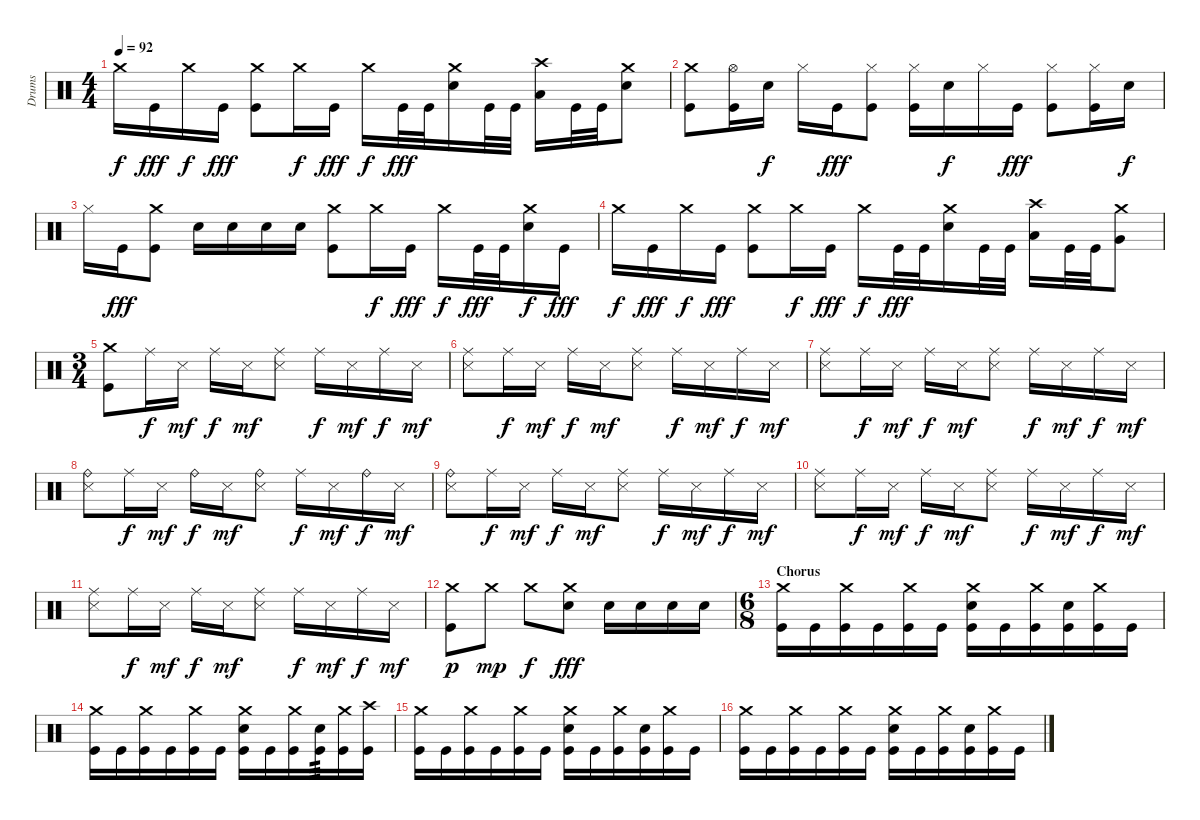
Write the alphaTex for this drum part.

\track ("Drums" "Drums") {instrument percussion}
\staff {score}
\articulation defaults
\ts (4 4)
\tempo 92
\clef neutral
\ks c "Crash medium (hit)".16{dy f} "Kick (hit)".16{dy fff} "Crash medium (hit)".16{dy f} "Kick (hit)".16{dy fff}
("Crash medium (hit)" "Kick (hit)").8 "Crash medium (hit)".16{dy f} "Kick (hit)".16{dy fff} "Crash medium (hit)".16{dy f} "Kick (hit)".32{dy fff} "Kick (hit)".32 ("Crash medium (hit)" "Snare (hit) 2").16 "Kick (hit)".32 "Kick (hit)".32 ("Crash high (hit)" "Low Tom (hit)").16 "Kick (hit)".32 "Kick (hit)".32 ("Crash medium (hit)" "Snare (hit) 2").8 |
("Crash medium (hit)" "Kick (hit)").8 ("Hi-Hat (open)" "Kick (hit)").16 "Snare (hit) 2".16{dy f} "Hi-Hat (closed)".16 "Kick (hit)".16{dy fff} ("Hi-Hat (closed)" "Kick (hit)").8 ("Hi-Hat (closed)" "Kick (hit)").16 "Snare (hit) 2".16{dy f} "Hi-Hat (closed)".16 "Kick (hit)".16{dy fff} ("Hi-Hat (closed)" "Kick (hit)").8 ("Hi-Hat (closed)" "Kick (hit)").16 "Snare (hit) 2".16{dy f} |
"Hi-Hat (closed)".16 "Kick (hit)".16{dy fff} ("Crash medium (hit)" "Kick (hit)").8 "Snare (hit) 2".16 "Snare (hit) 2".16 "Snare (hit) 2".16 "Snare (hit) 2".16 ("Crash medium (hit)" "Kick (hit)").8 "Crash medium (hit)".16{dy f} "Kick (hit)".16{dy fff} "Crash medium (hit)".16{dy f} "Kick (hit)".32{dy fff} "Kick (hit)".32 ("Crash medium (hit)" "Snare (hit) 2").16{dy f} "Kick (hit)".16{dy fff} |
"Crash medium (hit)".16{dy f} "Kick (hit)".16{dy fff} "Crash medium (hit)".16{dy f} "Kick (hit)".16{dy fff} ("Crash medium (hit)" "Kick (hit)").8 "Crash medium (hit)".16{dy f} "Kick (hit)".16{dy fff} "Crash medium (hit)".16{dy f} "Kick (hit)".32{dy fff} "Kick (hit)".32 ("Crash medium (hit)" "Snare (hit) 2").16 "Kick (hit)".32 "Kick (hit)".32 ("Crash high (hit)" "Low Tom (hit)").16 "Kick (hit)".32 "Kick (hit)".32 ("Crash medium (hit)" "Very Low Tom (hit)").8 |
\ts (3 4)
("Crash medium (hit)" "Kick (hit)").8 "Ride (middle)".16{dy f} "Snare (side stick) 3".16{dy mf} "Ride (middle)".16{dy f} "Snare (side stick) 3".16{dy mf} ("Ride (middle)" "Snare (side stick) 3").8 "Ride (middle)".16{dy f} "Snare (side stick) 3".16{dy mf} "Ride (middle)".16{dy f} "Snare (side stick) 3".16{dy mf} |
("Ride (middle)" "Snare (side stick) 3").8 "Ride (middle)".16{dy f} "Snare (side stick) 3".16{dy mf} "Ride (middle)".16{dy f} "Snare (side stick) 3".16{dy mf} ("Ride (middle)" "Snare (side stick) 3").8 "Ride (middle)".16{dy f} "Snare (side stick) 3".16{dy mf} "Ride (middle)".16{dy f} "Snare (side stick) 3".16{dy mf} |
("Ride (middle)" "Snare (side stick) 3").8 "Ride (middle)".16{dy f} "Snare (side stick) 3".16{dy mf} "Ride (middle)".16{dy f} "Snare (side stick) 3".16{dy mf} ("Ride (middle)" "Snare (side stick) 3").8 "Ride (middle)".16{dy f} "Snare (side stick) 3".16{dy mf} "Ride (middle)".16{dy f} "Snare (side stick) 3".16{dy mf} |
("Ride (bell)" "Snare (side stick) 3").8 "Ride (middle)".16{dy f} "Snare (side stick) 3".16{dy mf} "Ride (bell)".16{dy f} "Snare (side stick) 3".16{dy mf} ("Ride (bell)" "Snare (side stick) 3").8 "Ride (middle)".16{dy f} "Snare (side stick) 3".16{dy mf} "Ride (bell)".16{dy f} "Snare (side stick) 3".16{dy mf} |
("Ride (bell)" "Snare (side stick) 3").8 "Ride (middle)".16{dy f} "Snare (side stick) 3".16{dy mf} "Ride (middle)".16{dy f} "Snare (side stick) 3".16{dy mf} ("Ride (middle)" "Snare (side stick) 3").8 "Ride (middle)".16{dy f} "Snare (side stick) 3".16{dy mf} "Ride (middle)".16{dy f} "Snare (side stick) 3".16{dy mf} |
("Ride (middle)" "Snare (side stick) 3").8 "Ride (middle)".16{dy f} "Snare (side stick) 3".16{dy mf} "Ride (middle)".16{dy f} "Snare (side stick) 3".16{dy mf} ("Ride (middle)" "Snare (side stick) 3").8 "Ride (middle)".16{dy f} "Snare (side stick) 3".16{dy mf} "Ride (middle)".16{dy f} "Snare (side stick) 3".16{dy mf} |
("Ride (middle)" "Snare (side stick) 3").8 "Ride (middle)".16{dy f} "Snare (side stick) 3".16{dy mf} "Ride (middle)".16{dy f} "Snare (side stick) 3".16{dy mf} ("Ride (middle)" "Snare (side stick) 3").8 "Ride (middle)".16{dy f} "Snare (side stick) 3".16{dy mf} "Ride (middle)".16{dy f} "Snare (side stick) 3".16{dy mf} |
("Crash medium (hit)" "Kick (hit)").8{dy p} "Crash medium (hit)".8{dy mp} "Crash medium (hit)".8{dy f} ("Crash medium (hit)" "Snare (hit) 2").8{dy fff} "Snare (hit) 2".16 "Snare (hit) 2".16 "Snare (hit) 2".16 "Snare (hit) 2".16 |
\ts (6 8)
\section ("" "Chorus")
("Crash medium (hit)" "Kick (hit)").16 "Kick (hit)".16 ("Crash medium (hit)" "Kick (hit)").16 "Kick (hit)".16 ("Crash medium (hit)" "Kick (hit)").16 "Kick (hit)".16 ("Crash medium (hit)" "Snare (hit) 2" "Kick (hit)").16 "Kick (hit)".16 ("Crash medium (hit)" "Kick (hit)").16 ("Snare (hit) 2" "Kick (hit)").16 ("Crash medium (hit)" "Kick (hit)").16 "Kick (hit)".16 |
("Crash medium (hit)" "Kick (hit)").16 "Kick (hit)".16 ("Crash medium (hit)" "Kick (hit)").16 "Kick (hit)".16 ("Crash medium (hit)" "Kick (hit)").16 "Kick (hit)".16 ("Crash medium (hit)" "Snare (hit) 2" "Kick (hit)").16 "Kick (hit)".16 ("Crash medium (hit)" "Kick (hit)").16 ("Snare (hit) 2" "Kick (hit)").16{tp 3} ("Crash medium (hit)" "Kick (hit)").16 ("Crash high (hit)" "Kick (hit)").16 |
("Crash medium (hit)" "Kick (hit)").16 "Kick (hit)".16 ("Crash medium (hit)" "Kick (hit)").16 "Kick (hit)".16 ("Crash medium (hit)" "Kick (hit)").16 "Kick (hit)".16 ("Crash medium (hit)" "Snare (hit) 2" "Kick (hit)").16 "Kick (hit)".16 ("Crash medium (hit)" "Kick (hit)").16 ("Snare (hit) 2" "Kick (hit)").16 ("Crash medium (hit)" "Kick (hit)").16 "Kick (hit)".16 |
("Crash medium (hit)" "Kick (hit)").16 "Kick (hit)".16 ("Crash medium (hit)" "Kick (hit)").16 "Kick (hit)".16 ("Crash medium (hit)" "Kick (hit)").16 "Kick (hit)".16 ("Crash medium (hit)" "Snare (hit) 2" "Kick (hit)").16 "Kick (hit)".16 ("Crash medium (hit)" "Kick (hit)").16 ("Snare (hit) 2" "Kick (hit)").16 ("Crash medium (hit)" "Kick (hit)").16 "Kick (hit)".16
